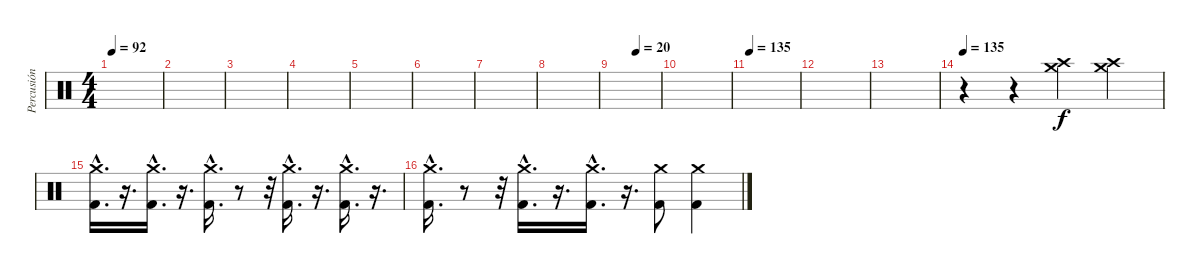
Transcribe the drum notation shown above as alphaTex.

\track ("Percusión" "Percusión") {instrument percussion}
\staff {score}
\articulation defaults
\ts (4 4)
\tempo 92
\clef neutral
\ks c
|
|
|
|
|
|
|
|
\tempo (20 0.5)
|
|
\tempo 135
|
|
|
\tempo 135
r.4 r.4 ("Crash medium (hit)" "Crash high (hit)").4 ("Crash medium (hit)" "Crash high (hit)").4 |
("Crash medium (hit)"{hac} "Kick (hit) 2"{hac}).16{d} r.16{d} ("Crash medium (hit)"{hac} "Kick (hit) 2"{hac}).16{d} r.16{d} ("Crash medium (hit)"{hac} "Kick (hit) 2"{hac}).16{d} r.8 r.32 ("Crash medium (hit)"{hac} "Kick (hit) 2"{hac}).16{d} r.16{d} ("Crash medium (hit)"{hac} "Kick (hit) 2"{hac}).16{d} r.16{d} |
("Crash medium (hit)"{hac} "Kick (hit) 2"{hac}).16{d} r.8 r.32 ("Crash medium (hit)"{hac} "Kick (hit) 2"{hac}).16{d} r.16{d} ("Crash medium (hit)"{hac} "Kick (hit) 2"{hac}).16{d} r.16{d} ("Crash medium (hit)" "Kick (hit) 2").8 ("Crash medium (hit)" "Kick (hit) 2").4
